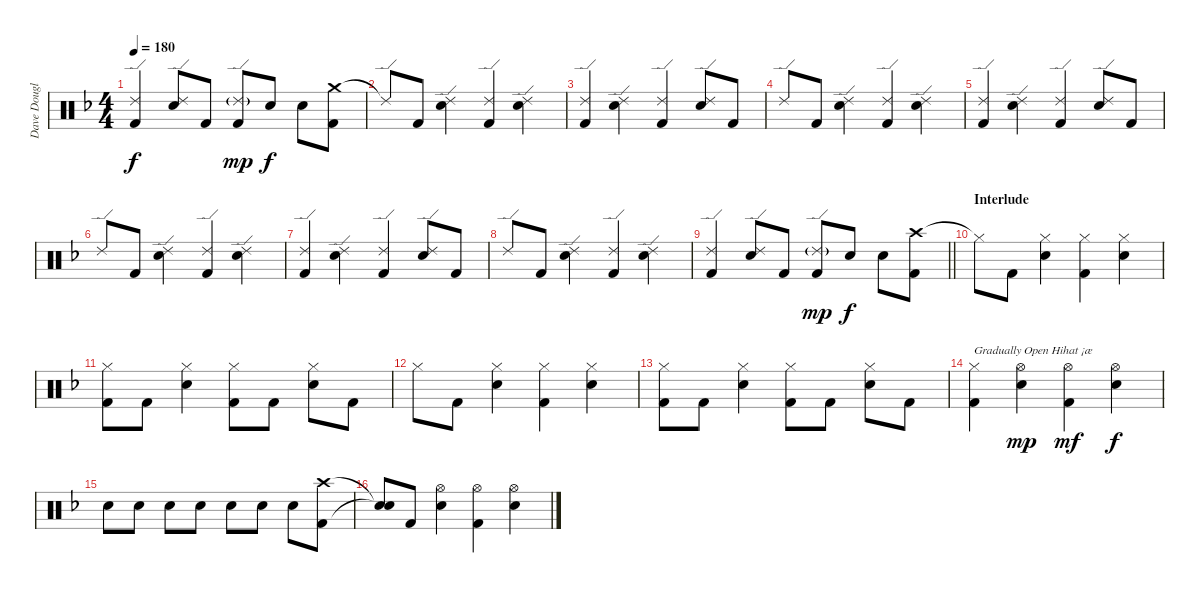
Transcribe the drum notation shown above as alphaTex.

\track ("Dave Douglas (Drum)" "Dave Dougl") {instrument percussion}
\staff {score}
\articulation defaults
\ts (4 4)
\tempo 180
\clef neutral
\ks dminor
("Ride (edge) 2" "Kick (hit) 2").4{dy f} ("Ride (edge) 2" "Snare (hit) 2").8 "Kick (hit) 2".8 ("Ride (edge) 2"{g} "Kick (hit) 2").8{dy mp} "Snare (hit) 2".8{dy f} "Snare (hit) 2".8 ("Crash medium (hit)" "Kick (hit) 2").8 |
"Ride (edge) 2"{t}.8 "Kick (hit) 2".8 ("Ride (edge) 2" "Snare (hit) 2").4 ("Ride (edge) 2" "Kick (hit) 2").4 ("Ride (edge) 2" "Snare (hit) 2").4 |
("Ride (edge) 2" "Kick (hit) 2").4 ("Ride (edge) 2" "Snare (hit) 2").4 ("Ride (edge) 2" "Kick (hit) 2").4 ("Ride (edge) 2" "Snare (hit) 2").8 "Kick (hit) 2".8 |
"Ride (edge) 2".8 "Kick (hit) 2".8 ("Ride (edge) 2" "Snare (hit) 2").4 ("Ride (edge) 2" "Kick (hit) 2").4 ("Ride (edge) 2" "Snare (hit) 2").4 |
("Ride (edge) 2" "Kick (hit) 2").4 ("Ride (edge) 2" "Snare (hit) 2").4 ("Ride (edge) 2" "Kick (hit) 2").4 ("Ride (edge) 2" "Snare (hit) 2").8 "Kick (hit) 2".8 |
"Ride (edge) 2".8 "Kick (hit) 2".8 ("Ride (edge) 2" "Snare (hit) 2").4 ("Ride (edge) 2" "Kick (hit) 2").4 ("Ride (edge) 2" "Snare (hit) 2").4 |
("Ride (edge) 2" "Kick (hit) 2").4 ("Ride (edge) 2" "Snare (hit) 2").4 ("Ride (edge) 2" "Kick (hit) 2").4 ("Ride (edge) 2" "Snare (hit) 2").8 "Kick (hit) 2".8 |
"Ride (edge) 2".8 "Kick (hit) 2".8 ("Ride (edge) 2" "Snare (hit) 2").4 ("Ride (edge) 2" "Kick (hit) 2").4 ("Ride (edge) 2" "Snare (hit) 2").4 |
\barLineRight lightlight
("Ride (edge) 2" "Kick (hit) 2").4 ("Ride (edge) 2" "Snare (hit) 2").8 "Kick (hit) 2".8 ("Ride (edge) 2"{g} "Kick (hit) 2").8{dy mp} "Snare (hit) 2".8{dy f} "Snare (hit) 2".8 ("Crash high (hit)" "Kick (hit) 2").8 |
\section ("" "Interlude")
"Hi-Hat (closed)"{t}.8 "Kick (hit) 2".8 ("Hi-Hat (closed)" "Snare (hit) 2").4 ("Hi-Hat (closed)" "Kick (hit) 2").4 ("Hi-Hat (closed)" "Snare (hit) 2").4 |
("Hi-Hat (closed)" "Kick (hit) 2").8 "Kick (hit) 2".8 ("Hi-Hat (closed)" "Snare (hit) 2").4 ("Hi-Hat (closed)" "Kick (hit) 2").8 "Kick (hit) 2".8 ("Hi-Hat (closed)" "Snare (hit) 2").8 "Kick (hit) 2".8 |
"Hi-Hat (closed)".8 "Kick (hit) 2".8 ("Hi-Hat (closed)" "Snare (hit) 2").4 ("Hi-Hat (closed)" "Kick (hit) 2").4 ("Hi-Hat (closed)" "Snare (hit) 2").4 |
("Hi-Hat (closed)" "Kick (hit) 2").8 "Kick (hit) 2".8 ("Hi-Hat (closed)" "Snare (hit) 2").4 ("Hi-Hat (closed)" "Kick (hit) 2").8 "Kick (hit) 2".8 ("Hi-Hat (closed)" "Snare (hit) 2").8 "Kick (hit) 2".8 |
("Hi-Hat (closed)" "Kick (hit) 2").4{txt "Gradually Open Hihat ¡æ"} ("Hi-Hat (open)" "Snare (hit) 2").4{dy mp} ("Hi-Hat (open)" "Kick (hit) 2").4{dy mf} ("Hi-Hat (open)" "Snare (hit) 2").4{dy f} |
"Snare (hit) 2".8 "Snare (hit) 2".8 "Snare (hit) 2".8 "Snare (hit) 2".8 "Snare (hit) 2".8 "Snare (hit) 2".8 "Snare (hit) 2".8 ("Crash high (hit)" "Kick (hit) 2").8 |
("Snare (hit)"{t} "Snare (hit)"{t}).8 "Kick (hit) 2".8 ("Hi-Hat (open)" "Snare (hit) 2").4 ("Hi-Hat (open)" "Kick (hit) 2").4 ("Hi-Hat (open)" "Snare (hit) 2").4
